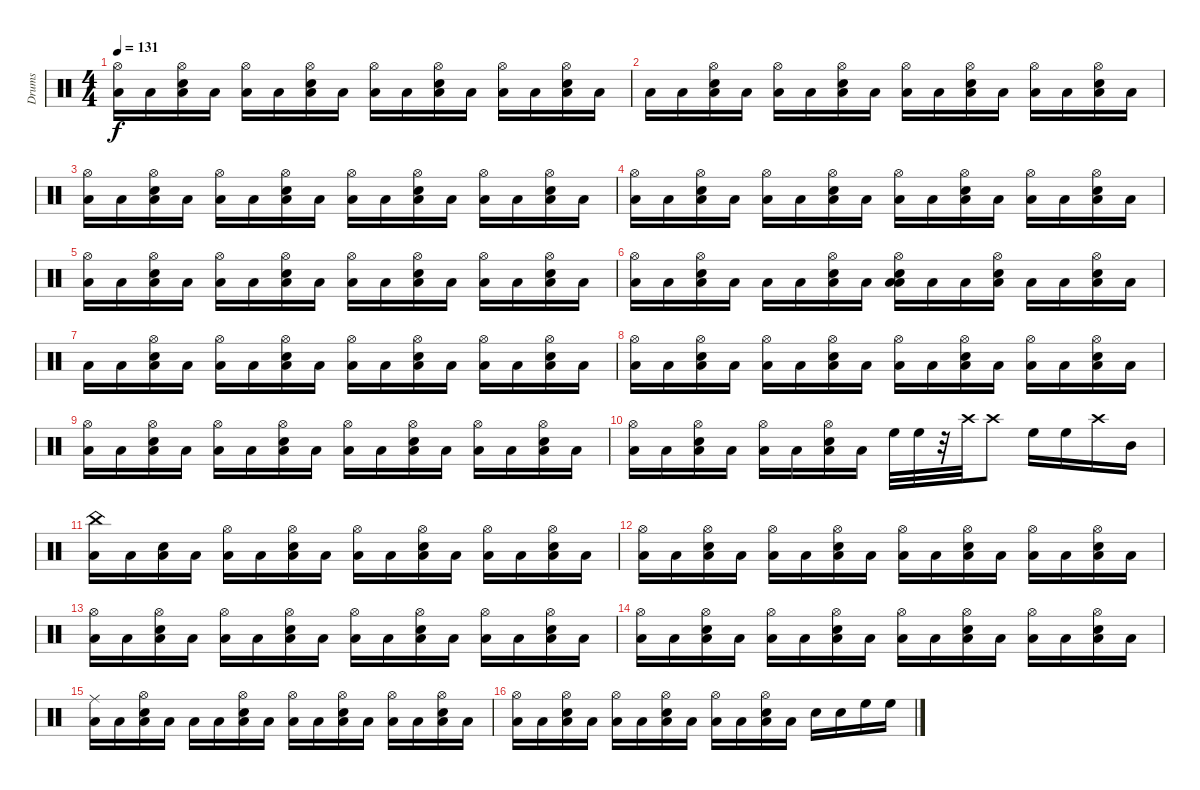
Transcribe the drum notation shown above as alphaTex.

\track ("Drums" "Drums") {instrument percussion}
\staff {score}
\articulation defaults
\ts (4 4)
\tempo 131
\clef neutral
\ks c
("Hi-Hat (open)" "Low Tom (hit)").16{dy f} "Low Tom (hit)".16 ("Hi-Hat (open)" "Low Tom (hit)" "Electric Snare (hit)").16 "Low Tom (hit)".16 ("Hi-Hat (open)" "Low Tom (hit)").16 "Low Tom (hit)".16 ("Hi-Hat (open)" "Low Tom (hit)" "Electric Snare (hit)").16 "Low Tom (hit)".16 ("Hi-Hat (open)" "Low Tom (hit)").16 "Low Tom (hit)".16 ("Hi-Hat (open)" "Low Tom (hit)" "Electric Snare (hit)").16 "Low Tom (hit)".16 ("Hi-Hat (open)" "Low Tom (hit)").16 "Low Tom (hit)".16 ("Hi-Hat (open)" "Low Tom (hit)" "Electric Snare (hit)").16 "Low Tom (hit)".16 |
"Low Tom (hit)".16 "Low Tom (hit)".16 ("Hi-Hat (open)" "Low Tom (hit)" "Electric Snare (hit)").16 "Low Tom (hit)".16 ("Hi-Hat (open)" "Low Tom (hit)").16 "Low Tom (hit)".16 ("Hi-Hat (open)" "Low Tom (hit)" "Electric Snare (hit)").16 "Low Tom (hit)".16 ("Hi-Hat (open)" "Low Tom (hit)").16 "Low Tom (hit)".16 ("Hi-Hat (open)" "Low Tom (hit)" "Electric Snare (hit)").16 "Low Tom (hit)".16 ("Hi-Hat (open)" "Low Tom (hit)").16 "Low Tom (hit)".16 ("Hi-Hat (open)" "Low Tom (hit)" "Electric Snare (hit)").16 "Low Tom (hit)".16 |
("Hi-Hat (open)" "Low Tom (hit)").16 "Low Tom (hit)".16 ("Hi-Hat (open)" "Low Tom (hit)" "Electric Snare (hit)").16 "Low Tom (hit)".16 ("Hi-Hat (open)" "Low Tom (hit)").16 "Low Tom (hit)".16 ("Hi-Hat (open)" "Low Tom (hit)" "Electric Snare (hit)").16 "Low Tom (hit)".16 ("Hi-Hat (open)" "Low Tom (hit)").16 "Low Tom (hit)".16 ("Hi-Hat (open)" "Low Tom (hit)" "Electric Snare (hit)").16 "Low Tom (hit)".16 ("Hi-Hat (open)" "Low Tom (hit)").16 "Low Tom (hit)".16 ("Hi-Hat (open)" "Low Tom (hit)" "Electric Snare (hit)").16 "Low Tom (hit)".16 |
("Hi-Hat (open)" "Low Tom (hit)").16 "Low Tom (hit)".16 ("Hi-Hat (open)" "Low Tom (hit)" "Electric Snare (hit)").16 "Low Tom (hit)".16 ("Hi-Hat (open)" "Low Tom (hit)").16 "Low Tom (hit)".16 ("Hi-Hat (open)" "Low Tom (hit)" "Electric Snare (hit)").16 "Low Tom (hit)".16 ("Hi-Hat (open)" "Low Tom (hit)").16 "Low Tom (hit)".16 ("Hi-Hat (open)" "Low Tom (hit)" "Electric Snare (hit)").16 "Low Tom (hit)".16 ("Hi-Hat (open)" "Low Tom (hit)").16 "Low Tom (hit)".16 ("Hi-Hat (open)" "Low Tom (hit)" "Electric Snare (hit)").16 "Low Tom (hit)".16 |
("Low Tom (hit)" "Hi-Hat (open)").16 "Low Tom (hit)".16 ("Electric Snare (hit)" "Low Tom (hit)" "Hi-Hat (open)").16 "Low Tom (hit)".16 ("Low Tom (hit)" "Hi-Hat (open)").16 "Low Tom (hit)".16 ("Electric Snare (hit)" "Low Tom (hit)" "Hi-Hat (open)").16 "Low Tom (hit)".16 ("Low Tom (hit)" "Hi-Hat (open)").16 "Low Tom (hit)".16 ("Electric Snare (hit)" "Low Tom (hit)" "Hi-Hat (open)").16 "Low Tom (hit)".16 ("Low Tom (hit)" "Hi-Hat (open)").16 "Low Tom (hit)".16 ("Electric Snare (hit)" "Low Tom (hit)" "Hi-Hat (open)").16 "Low Tom (hit)".16 |
("Low Tom (hit)" "Hi-Hat (open)").16 "Low Tom (hit)".16 ("Low Tom (hit)" "Electric Snare (hit)" "Hi-Hat (open)").16 "Low Tom (hit)".16 "Low Tom (hit)".16 "Low Tom (hit)".16 ("Low Tom (hit)" "Electric Snare (hit)" "Hi-Hat (open)").16 "Low Tom (hit)".16 ("Low Tom (hit)" "Electric Snare (hit)" "Low Tom (hit)" "Hi-Hat (open)").16 "Low Tom (hit)".16 "Low Tom (hit)".16 ("Low Tom (hit)" "Electric Snare (hit)" "Hi-Hat (open)").16 "Low Tom (hit)".16 "Low Tom (hit)".16 ("Low Tom (hit)" "Electric Snare (hit)" "Hi-Hat (open)").16 "Low Tom (hit)".16 |
"Low Tom (hit)".16 "Low Tom (hit)".16 ("Hi-Hat (open)" "Electric Snare (hit)" "Low Tom (hit)").16 "Low Tom (hit)".16 ("Hi-Hat (open)" "Low Tom (hit)").16 "Low Tom (hit)".16 ("Hi-Hat (open)" "Electric Snare (hit)" "Low Tom (hit)").16 "Low Tom (hit)".16 ("Hi-Hat (open)" "Low Tom (hit)").16 "Low Tom (hit)".16 ("Hi-Hat (open)" "Electric Snare (hit)" "Low Tom (hit)").16 "Low Tom (hit)".16 ("Hi-Hat (open)" "Low Tom (hit)").16 "Low Tom (hit)".16 ("Hi-Hat (open)" "Electric Snare (hit)" "Low Tom (hit)").16 "Low Tom (hit)".16 |
("Low Tom (hit)" "Hi-Hat (open)").16 "Low Tom (hit)".16 ("Low Tom (hit)" "Electric Snare (hit)" "Hi-Hat (open)").16 "Low Tom (hit)".16 ("Low Tom (hit)" "Hi-Hat (open)").16 "Low Tom (hit)".16 ("Low Tom (hit)" "Electric Snare (hit)" "Hi-Hat (open)").16 "Low Tom (hit)".16 ("Low Tom (hit)" "Hi-Hat (open)").16 "Low Tom (hit)".16 ("Low Tom (hit)" "Electric Snare (hit)" "Hi-Hat (open)").16 "Low Tom (hit)".16 ("Low Tom (hit)" "Hi-Hat (open)").16 "Low Tom (hit)".16 ("Low Tom (hit)" "Electric Snare (hit)" "Hi-Hat (open)").16 "Low Tom (hit)".16 |
("Low Tom (hit)" "Hi-Hat (open)").16 "Low Tom (hit)".16 ("Low Tom (hit)" "Electric Snare (hit)" "Hi-Hat (open)").16 "Low Tom (hit)".16 ("Low Tom (hit)" "Hi-Hat (open)").16 "Low Tom (hit)".16 ("Low Tom (hit)" "Electric Snare (hit)" "Hi-Hat (open)").16 "Low Tom (hit)".16 ("Low Tom (hit)" "Hi-Hat (open)").16 "Low Tom (hit)".16 ("Low Tom (hit)" "Electric Snare (hit)" "Hi-Hat (open)").16 "Low Tom (hit)".16 ("Low Tom (hit)" "Hi-Hat (open)").16 "Low Tom (hit)".16 ("Low Tom (hit)" "Electric Snare (hit)" "Hi-Hat (open)").16 "Low Tom (hit)".16 |
("Low Tom (hit)" "Hi-Hat (open)").16 "Low Tom (hit)".16 ("Electric Snare (hit)" "Low Tom (hit)" "Hi-Hat (open)").16 "Low Tom (hit)".16 ("Low Tom (hit)" "Hi-Hat (open)").16 "Low Tom (hit)".16 ("Electric Snare (hit)" "Low Tom (hit)" "Hi-Hat (open)").16 "Low Tom (hit)".16 "High Floor Tom (hit)".32 "High Floor Tom (hit)".32 r.32 "Crash high (hit)".32 "Crash high (hit)".8 "High Floor Tom (hit)".16 "High Floor Tom (hit)".16 "Crash high (hit)".16 "Mid Tom (hit)".16 |
("China (hit)" "Low Tom (hit)").16 "Low Tom (hit)".16 ("Electric Snare (hit)" "Low Tom (hit)").16 "Low Tom (hit)".16 ("Low Tom (hit)" "Hi-Hat (open)").16 "Low Tom (hit)".16 ("Electric Snare (hit)" "Low Tom (hit)" "Hi-Hat (open)").16 "Low Tom (hit)".16 ("Low Tom (hit)" "Hi-Hat (open)").16 "Low Tom (hit)".16 ("Electric Snare (hit)" "Low Tom (hit)" "Hi-Hat (open)").16 "Low Tom (hit)".16 ("Low Tom (hit)" "Hi-Hat (open)").16 "Low Tom (hit)".16 ("Electric Snare (hit)" "Low Tom (hit)" "Hi-Hat (open)").16 "Low Tom (hit)".16 |
("Low Tom (hit)" "Hi-Hat (open)").16 "Low Tom (hit)".16 ("Low Tom (hit)" "Electric Snare (hit)" "Hi-Hat (open)").16 "Low Tom (hit)".16 ("Low Tom (hit)" "Hi-Hat (open)").16 "Low Tom (hit)".16 ("Low Tom (hit)" "Electric Snare (hit)" "Hi-Hat (open)").16 "Low Tom (hit)".16 ("Low Tom (hit)" "Hi-Hat (open)").16 "Low Tom (hit)".16 ("Low Tom (hit)" "Electric Snare (hit)" "Hi-Hat (open)").16 "Low Tom (hit)".16 ("Low Tom (hit)" "Hi-Hat (open)").16 "Low Tom (hit)".16 ("Low Tom (hit)" "Electric Snare (hit)" "Hi-Hat (open)").16 "Low Tom (hit)".16 |
("Low Tom (hit)" "Hi-Hat (open)").16 "Low Tom (hit)".16 ("Electric Snare (hit)" "Low Tom (hit)" "Hi-Hat (open)").16 "Low Tom (hit)".16 ("Low Tom (hit)" "Hi-Hat (open)").16 "Low Tom (hit)".16 ("Electric Snare (hit)" "Low Tom (hit)" "Hi-Hat (open)").16 "Low Tom (hit)".16 ("Low Tom (hit)" "Hi-Hat (open)").16 "Low Tom (hit)".16 ("Electric Snare (hit)" "Low Tom (hit)" "Hi-Hat (open)").16 "Low Tom (hit)".16 ("Low Tom (hit)" "Hi-Hat (open)").16 "Low Tom (hit)".16 ("Electric Snare (hit)" "Low Tom (hit)" "Hi-Hat (open)").16 "Low Tom (hit)".16 |
("Hi-Hat (open)" "Low Tom (hit)").16 "Low Tom (hit)".16 ("Hi-Hat (open)" "Low Tom (hit)" "Electric Snare (hit)").16 "Low Tom (hit)".16 ("Hi-Hat (open)" "Low Tom (hit)").16 "Low Tom (hit)".16 ("Hi-Hat (open)" "Low Tom (hit)" "Electric Snare (hit)").16 "Low Tom (hit)".16 ("Hi-Hat (open)" "Low Tom (hit)").16 "Low Tom (hit)".16 ("Hi-Hat (open)" "Low Tom (hit)" "Electric Snare (hit)").16 "Low Tom (hit)".16 ("Hi-Hat (open)" "Low Tom (hit)").16 "Low Tom (hit)".16 ("Hi-Hat (open)" "Electric Snare (hit)" "Low Tom (hit)").16 "Low Tom (hit)".16 |
("Low Tom (hit)" "Ride (middle)").16 "Low Tom (hit)".16 ("Hi-Hat (open)" "Low Tom (hit)" "Electric Snare (hit)").16 "Low Tom (hit)".16 "Low Tom (hit)".16 "Low Tom (hit)".16 ("Hi-Hat (open)" "Low Tom (hit)" "Electric Snare (hit)").16 "Low Tom (hit)".16 ("Hi-Hat (open)" "Low Tom (hit)").16 "Low Tom (hit)".16 ("Hi-Hat (open)" "Low Tom (hit)" "Electric Snare (hit)").16 "Low Tom (hit)".16 ("Hi-Hat (open)" "Low Tom (hit)").16 "Low Tom (hit)".16 ("Hi-Hat (open)" "Low Tom (hit)" "Electric Snare (hit)").16 "Low Tom (hit)".16 |
("Hi-Hat (open)" "Low Tom (hit)").16 "Low Tom (hit)".16 ("Hi-Hat (open)" "Low Tom (hit)" "Electric Snare (hit)").16 "Low Tom (hit)".16 ("Hi-Hat (open)" "Low Tom (hit)").16 "Low Tom (hit)".16 ("Hi-Hat (open)" "Low Tom (hit)" "Electric Snare (hit)").16 "Low Tom (hit)".16 ("Hi-Hat (open)" "Low Tom (hit)").16 "Low Tom (hit)".16 ("Hi-Hat (open)" "Low Tom (hit)" "Electric Snare (hit)").16 "Low Tom (hit)".16 "Electric Snare (hit)".16 "Electric Snare (hit)".16 "High Floor Tom (hit)".16 "High Floor Tom (hit)".16
